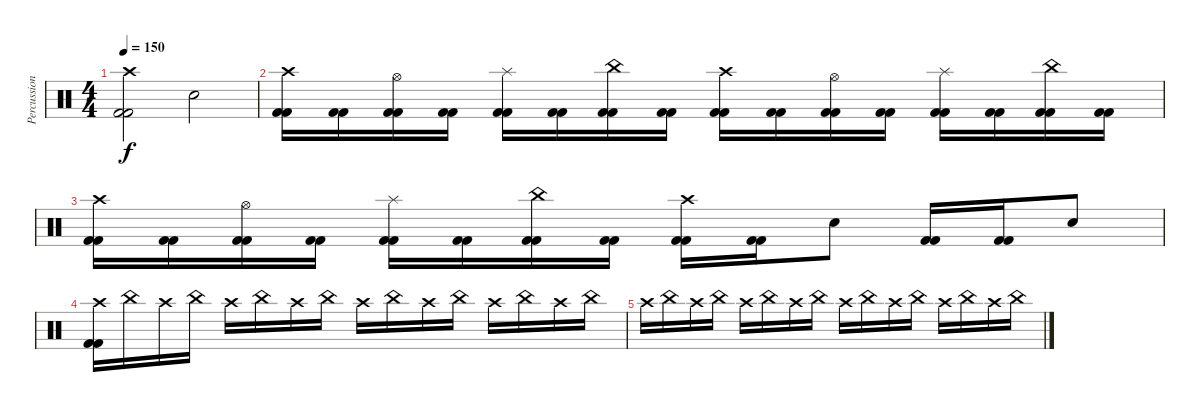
\track ("Percussions" "Percussion") {instrument percussion}
\staff {score}
\articulation defaults
\ts (4 4)
\tempo 150
\clef neutral
\ks c
("Kick (hit) 2" "Kick (hit) 2" "Crash high (hit)").2{dy f} "Electric Snare (hit)".2 |
("Kick (hit) 2" "Kick (hit) 2" "Crash high (hit)").16 ("Kick (hit) 2" "Kick (hit) 2").16 ("Kick (hit) 2" "Kick (hit) 2" "Hi-Hat (open)").16 ("Kick (hit) 2" "Kick (hit) 2").16 ("Kick (hit) 2" "Kick (hit) 2" "Splash (hit)").16 ("Kick (hit) 2" "Kick (hit) 2").16 ("Kick (hit) 2" "Kick (hit) 2" "China (hit)").16 ("Kick (hit) 2" "Kick (hit) 2").16 ("Kick (hit) 2" "Kick (hit) 2" "Crash high (hit)").16 ("Kick (hit) 2" "Kick (hit) 2").16 ("Kick (hit) 2" "Kick (hit) 2" "Hi-Hat (open)").16 ("Kick (hit) 2" "Kick (hit) 2").16 ("Kick (hit) 2" "Kick (hit) 2" "Splash (hit)").16 ("Kick (hit) 2" "Kick (hit) 2").16 ("Kick (hit) 2" "Kick (hit) 2" "China (hit)").16 ("Kick (hit) 2" "Kick (hit) 2").16 |
("Kick (hit) 2" "Kick (hit) 2" "Crash high (hit)").16 ("Kick (hit) 2" "Kick (hit) 2").16 ("Kick (hit) 2" "Kick (hit) 2" "Hi-Hat (open)").16 ("Kick (hit) 2" "Kick (hit) 2").16 ("Kick (hit) 2" "Kick (hit) 2" "Splash (hit)").16 ("Kick (hit) 2" "Kick (hit) 2").16 ("Kick (hit) 2" "Kick (hit) 2" "China (hit)").16 ("Kick (hit) 2" "Kick (hit) 2").16 ("Kick (hit) 2" "Kick (hit) 2" "Crash high (hit)").16 ("Kick (hit) 2" "Kick (hit) 2").16 "Electric Snare (hit)".8 ("Kick (hit) 2" "Kick (hit) 2").16 ("Kick (hit) 2" "Kick (hit) 2").16 "Electric Snare (hit)".8 |
("Kick (hit) 2" "Kick (hit) 2" "Crash high (hit)").16 "China (hit)".16 "Crash high (hit)".16 "China (hit)".16 "Crash high (hit)".16 "China (hit)".16 "Crash high (hit)".16 "China (hit)".16 "Crash high (hit)".16 "China (hit)".16 "Crash high (hit)".16 "China (hit)".16 "Crash high (hit)".16 "China (hit)".16 "Crash high (hit)".16 "China (hit)".16 |
"Crash high (hit)".16{volume 0} "China (hit)".16 "Crash high (hit)".16 "China (hit)".16 "Crash high (hit)".16 "China (hit)".16 "Crash high (hit)".16 "China (hit)".16 "Crash high (hit)".16 "China (hit)".16 "Crash high (hit)".16 "China (hit)".16 "Crash high (hit)".16 "China (hit)".16 "Crash high (hit)".16 "China (hit)".16
